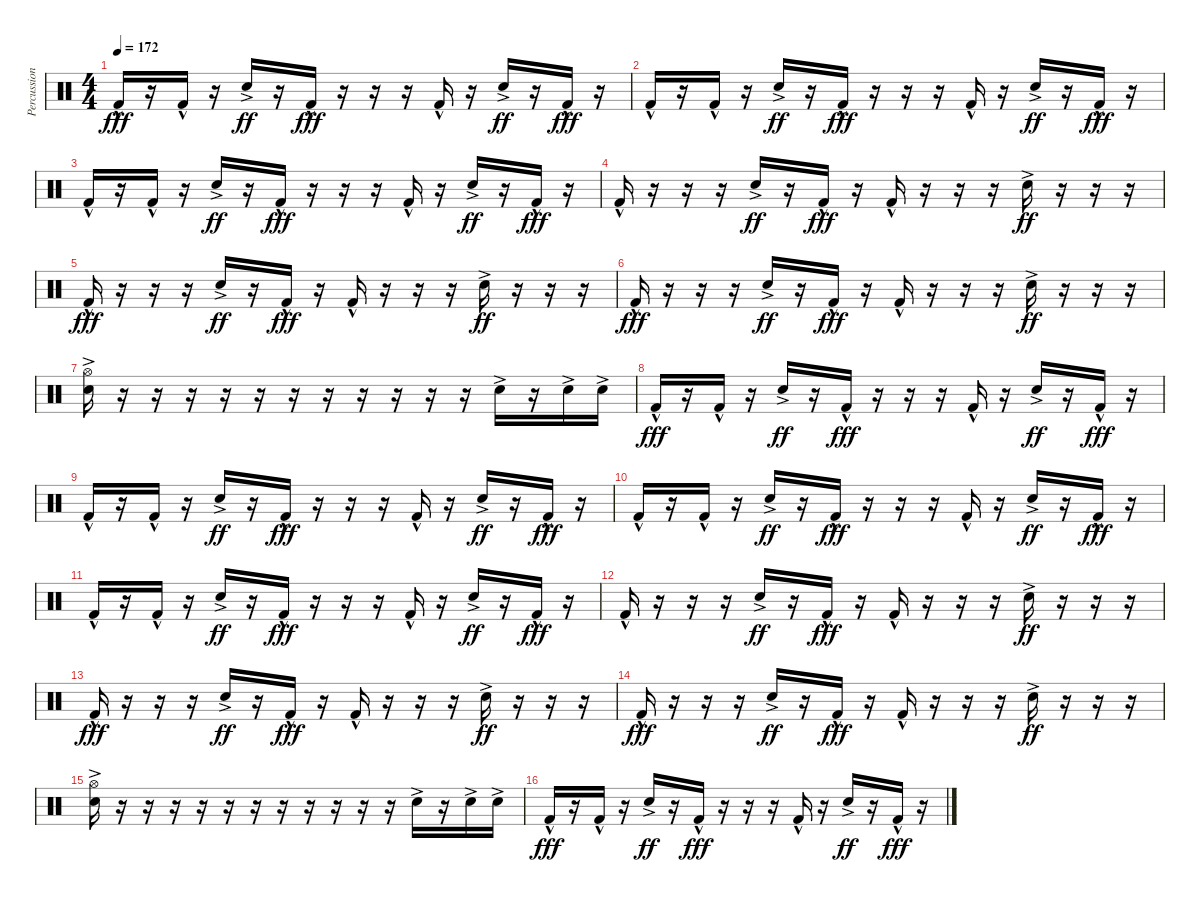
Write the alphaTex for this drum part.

\track ("Percussion" "Percussion") {instrument percussion bank 255}
\staff {score}
\articulation defaults
\ts (4 4)
\tempo 172
\clef neutral
\ks c "Kick (hit) 2"{hac}.16{dy fff}
r.16 "Kick (hit) 2"{hac}.16 r.16 "Snare (hit) 2"{ac}.16{dy ff} r.16 "Kick (hit) 2"{hac}.16{dy fff} r.16 r.16 r.16 "Kick (hit) 2"{hac}.16 r.16 "Snare (hit) 2"{ac}.16{dy ff} r.16 "Kick (hit) 2"{hac}.16{dy fff} r.16 |
"Kick (hit) 2"{hac}.16 r.16 "Kick (hit) 2"{hac}.16 r.16 "Snare (hit) 2"{ac}.16{dy ff} r.16 "Kick (hit) 2"{hac}.16{dy fff} r.16 r.16 r.16 "Kick (hit) 2"{hac}.16 r.16 "Snare (hit) 2"{ac}.16{dy ff} r.16 "Kick (hit) 2"{hac}.16{dy fff} r.16 |
"Kick (hit) 2"{hac}.16 r.16 "Kick (hit) 2"{hac}.16 r.16 "Snare (hit) 2"{ac}.16{dy ff} r.16 "Kick (hit) 2"{hac}.16{dy fff} r.16 r.16 r.16 "Kick (hit) 2"{hac}.16 r.16 "Snare (hit) 2"{ac}.16{dy ff} r.16 "Kick (hit) 2"{hac}.16{dy fff} r.16 |
"Kick (hit) 2"{hac}.16 r.16 r.16 r.16 "Snare (hit) 2"{ac}.16{dy ff} r.16 "Kick (hit) 2"{hac}.16{dy fff} r.16 "Kick (hit) 2"{hac}.16 r.16 r.16 r.16 "Snare (hit) 2"{ac}.16{dy ff} r.16 r.16 r.16 |
"Kick (hit) 2"{hac}.16{dy fff} r.16 r.16 r.16 "Snare (hit) 2"{ac}.16{dy ff} r.16 "Kick (hit) 2"{hac}.16{dy fff} r.16 "Kick (hit) 2"{hac}.16 r.16 r.16 r.16 "Snare (hit) 2"{ac}.16{dy ff} r.16 r.16 r.16 |
"Kick (hit) 2"{hac}.16{dy fff} r.16 r.16 r.16 "Snare (hit) 2"{ac}.16{dy ff} r.16 "Kick (hit) 2"{hac}.16{dy fff} r.16 "Kick (hit) 2"{hac}.16 r.16 r.16 r.16 "Snare (hit) 2"{ac}.16{dy ff} r.16 r.16 r.16 |
("Hi-Hat (open)"{ac} "Snare (hit) 2"{ac}).16 r.16 r.16 r.16 r.16 r.16 r.16 r.16 r.16 r.16 r.16 r.16 "Snare (hit) 2"{ac}.16 r.16 "Snare (hit) 2"{ac}.16 "Snare (hit) 2"{ac}.16 |
"Kick (hit) 2"{hac}.16{dy fff} r.16 "Kick (hit) 2"{hac}.16 r.16 "Snare (hit) 2"{ac}.16{dy ff} r.16 "Kick (hit) 2"{hac}.16{dy fff} r.16 r.16 r.16 "Kick (hit) 2"{hac}.16 r.16 "Snare (hit) 2"{ac}.16{dy ff} r.16 "Kick (hit) 2"{hac}.16{dy fff} r.16 |
"Kick (hit) 2"{hac}.16 r.16 "Kick (hit) 2"{hac}.16 r.16 "Snare (hit) 2"{ac}.16{dy ff} r.16 "Kick (hit) 2"{hac}.16{dy fff} r.16 r.16 r.16 "Kick (hit) 2"{hac}.16 r.16 "Snare (hit) 2"{ac}.16{dy ff} r.16 "Kick (hit) 2"{hac}.16{dy fff} r.16 |
"Kick (hit) 2"{hac}.16 r.16 "Kick (hit) 2"{hac}.16 r.16 "Snare (hit) 2"{ac}.16{dy ff} r.16 "Kick (hit) 2"{hac}.16{dy fff} r.16 r.16 r.16 "Kick (hit) 2"{hac}.16 r.16 "Snare (hit) 2"{ac}.16{dy ff} r.16 "Kick (hit) 2"{hac}.16{dy fff} r.16 |
"Kick (hit) 2"{hac}.16 r.16 "Kick (hit) 2"{hac}.16 r.16 "Snare (hit) 2"{ac}.16{dy ff} r.16 "Kick (hit) 2"{hac}.16{dy fff} r.16 r.16 r.16 "Kick (hit) 2"{hac}.16 r.16 "Snare (hit) 2"{ac}.16{dy ff} r.16 "Kick (hit) 2"{hac}.16{dy fff} r.16 |
"Kick (hit) 2"{hac}.16 r.16 r.16 r.16 "Snare (hit) 2"{ac}.16{dy ff} r.16 "Kick (hit) 2"{hac}.16{dy fff} r.16 "Kick (hit) 2"{hac}.16 r.16 r.16 r.16 "Snare (hit) 2"{ac}.16{dy ff} r.16 r.16 r.16 |
"Kick (hit) 2"{hac}.16{dy fff} r.16 r.16 r.16 "Snare (hit) 2"{ac}.16{dy ff} r.16 "Kick (hit) 2"{hac}.16{dy fff} r.16 "Kick (hit) 2"{hac}.16 r.16 r.16 r.16 "Snare (hit) 2"{ac}.16{dy ff} r.16 r.16 r.16 |
"Kick (hit) 2"{hac}.16{dy fff} r.16 r.16 r.16 "Snare (hit) 2"{ac}.16{dy ff} r.16 "Kick (hit) 2"{hac}.16{dy fff} r.16 "Kick (hit) 2"{hac}.16 r.16 r.16 r.16 "Snare (hit) 2"{ac}.16{dy ff} r.16 r.16 r.16 |
("Hi-Hat (open)"{ac} "Snare (hit) 2"{ac}).16 r.16 r.16 r.16 r.16 r.16 r.16 r.16 r.16 r.16 r.16 r.16 "Snare (hit) 2"{ac}.16 r.16 "Snare (hit) 2"{ac}.16 "Snare (hit) 2"{ac}.16 |
"Kick (hit) 2"{hac}.16{dy fff} r.16 "Kick (hit) 2"{hac}.16 r.16 "Snare (hit) 2"{ac}.16{dy ff} r.16 "Kick (hit) 2"{hac}.16{dy fff} r.16 r.16 r.16 "Kick (hit) 2"{hac}.16 r.16 "Snare (hit) 2"{ac}.16{dy ff} r.16 "Kick (hit) 2"{hac}.16{dy fff} r.16
